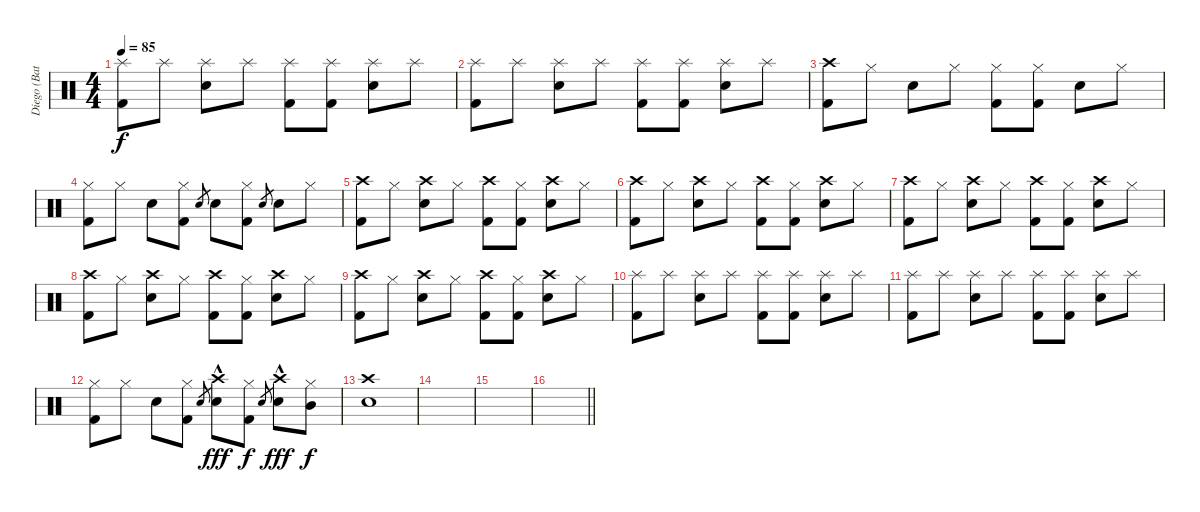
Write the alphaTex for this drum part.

\track ("Diego (Bateria)" "Diego (Bat") {instrument percussion}
\staff {score}
\articulation defaults
\ts (4 4)
\tempo 85
\clef neutral
\ks c
("Splash (hit)" "Kick (hit) 2").8{dy f} "Splash (hit)".8 ("Splash (hit)" "Electric Snare (hit)").8 "Splash (hit)".8 ("Splash (hit)" "Kick (hit) 2").8 ("Splash (hit)" "Kick (hit) 2").8 ("Splash (hit)" "Electric Snare (hit)").8 "Splash (hit)".8 |
("Splash (hit)" "Kick (hit) 2").8 "Splash (hit)".8 ("Splash (hit)" "Electric Snare (hit)").8 "Splash (hit)".8 ("Splash (hit)" "Kick (hit) 2").8 ("Splash (hit)" "Kick (hit) 2").8 ("Splash (hit)" "Electric Snare (hit)").8 "Splash (hit)".8 |
("Crash high (hit)" "Kick (hit) 2").8 "Hi-Hat (closed)".8 "Electric Snare (hit)".8 "Hi-Hat (closed)".8 ("Hi-Hat (closed)" "Kick (hit) 2").8 ("Hi-Hat (closed)" "Kick (hit) 2").8 "Electric Snare (hit)".8 "Hi-Hat (closed)".8 |
("Hi-Hat (closed)" "Kick (hit) 2").8 "Hi-Hat (closed)".8 "Electric Snare (hit)".8 ("Hi-Hat (closed)" "Kick (hit) 2").8 "Electric Snare (hit)".8{gr} "Electric Snare (hit)".8 ("Hi-Hat (closed)" "Kick (hit) 2").8 "Electric Snare (hit)".8{gr} "Electric Snare (hit)".8 "Hi-Hat (closed)".8 |
("Crash high (hit)" "Kick (hit) 2").8 "Hi-Hat (closed)".8 ("Crash high (hit)" "Electric Snare (hit)").8 "Hi-Hat (closed)".8 ("Crash high (hit)" "Kick (hit) 2").8 ("Hi-Hat (closed)" "Kick (hit) 2").8 ("Crash high (hit)" "Electric Snare (hit)").8 "Hi-Hat (closed)".8 |
("Crash high (hit)" "Kick (hit) 2").8 "Hi-Hat (closed)".8 ("Crash high (hit)" "Electric Snare (hit)").8 "Hi-Hat (closed)".8 ("Crash high (hit)" "Kick (hit) 2").8 ("Hi-Hat (closed)" "Kick (hit) 2").8 ("Crash high (hit)" "Electric Snare (hit)").8 "Hi-Hat (closed)".8 |
("Crash high (hit)" "Kick (hit) 2").8 "Hi-Hat (closed)".8 ("Crash high (hit)" "Electric Snare (hit)").8 "Hi-Hat (closed)".8 ("Crash high (hit)" "Kick (hit) 2").8 ("Hi-Hat (closed)" "Kick (hit) 2").8 ("Crash high (hit)" "Electric Snare (hit)").8 "Hi-Hat (closed)".8 |
("Crash high (hit)" "Kick (hit) 2").8 "Hi-Hat (closed)".8 ("Crash high (hit)" "Electric Snare (hit)").8 "Hi-Hat (closed)".8 ("Crash high (hit)" "Kick (hit) 2").8 ("Hi-Hat (closed)" "Kick (hit) 2").8 ("Crash high (hit)" "Electric Snare (hit)").8 "Hi-Hat (closed)".8 |
("Crash high (hit)" "Kick (hit) 2").8 "Hi-Hat (closed)".8 ("Crash high (hit)" "Electric Snare (hit)").8 "Hi-Hat (closed)".8 ("Crash high (hit)" "Kick (hit) 2").8 ("Hi-Hat (closed)" "Kick (hit) 2").8 ("Crash high (hit)" "Electric Snare (hit)").8 "Hi-Hat (closed)".8 |
("Splash (hit)" "Kick (hit) 2").8 "Splash (hit)".8 ("Splash (hit)" "Electric Snare (hit)").8 "Splash (hit)".8 ("Splash (hit)" "Kick (hit) 2").8 ("Splash (hit)" "Kick (hit) 2").8 ("Splash (hit)" "Electric Snare (hit)").8 "Splash (hit)".8 |
("Splash (hit)" "Kick (hit) 2").8 "Splash (hit)".8 ("Splash (hit)" "Electric Snare (hit)").8 "Splash (hit)".8 ("Splash (hit)" "Kick (hit) 2").8 ("Splash (hit)" "Kick (hit) 2").8 ("Splash (hit)" "Electric Snare (hit)").8 "Splash (hit)".8 |
("Hi-Hat (closed)" "Kick (hit) 2").8 "Hi-Hat (closed)".8 "Electric Snare (hit)".8 ("Hi-Hat (closed)" "Kick (hit) 2").8 "Electric Snare (hit)".8{gr} ("Crash high (hit)" "Electric Snare (hit)"{hac}).8{dy fff} ("Hi-Hat (closed)" "Kick (hit) 2").8{dy f} "Electric Snare (hit)".8{gr} ("Crash high (hit)" "Electric Snare (hit)"{hac}).8{dy fff} ("Mid Tom (hit)" "Hi-Hat (closed)").8{dy f} |
("Crash high (hit)" "Electric Snare (hit)").1 |
|
|
\barLineRight lightlight
